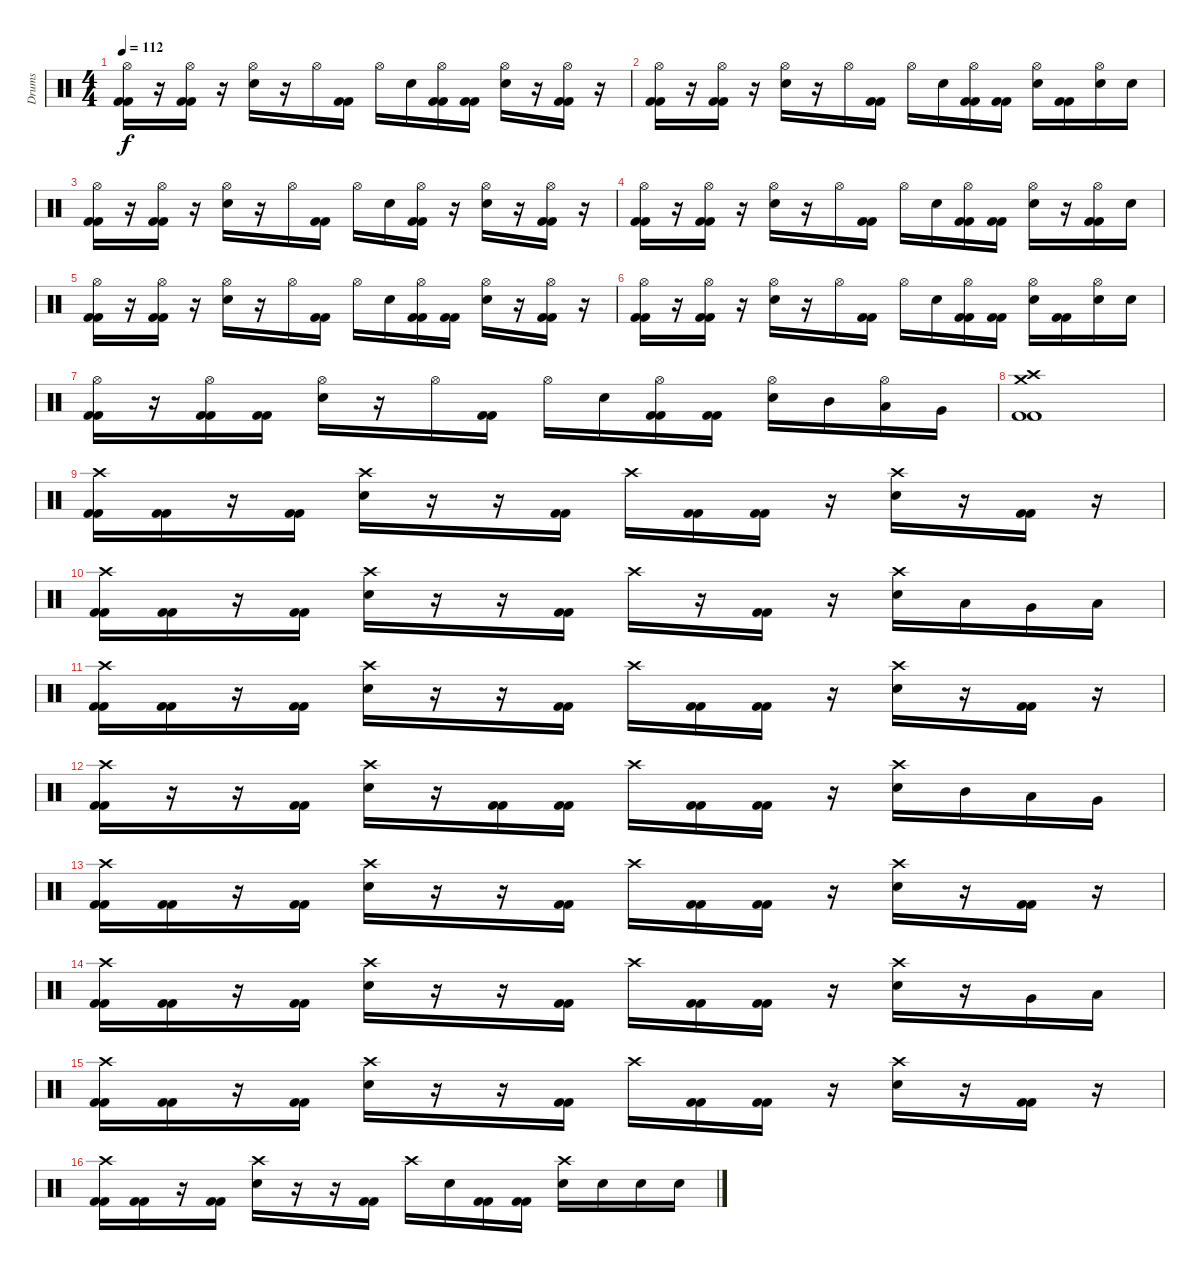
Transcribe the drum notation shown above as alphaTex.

\track ("Drums" "Drums") {instrument percussion}
\staff {score}
\articulation defaults
\ts (4 4)
\tempo 112
\clef neutral
\ks c
("Hi-Hat (open)" "Kick (hit) 2" "Kick (hit) 2").16{dy f} r.16 ("Hi-Hat (open)" "Kick (hit) 2" "Kick (hit) 2").16 r.16 ("Hi-Hat (open)" "Electric Snare (hit)").16 r.16 "Hi-Hat (open)".16 ("Kick (hit) 2" "Kick (hit) 2").16 "Hi-Hat (open)".16 "Electric Snare (hit)".16 ("Hi-Hat (open)" "Kick (hit) 2" "Kick (hit) 2").16 ("Kick (hit) 2" "Kick (hit) 2").16 ("Hi-Hat (open)" "Electric Snare (hit)").16 r.16 ("Hi-Hat (open)" "Kick (hit) 2" "Kick (hit) 2").16 r.16 |
("Hi-Hat (open)" "Kick (hit) 2" "Kick (hit) 2").16 r.16 ("Hi-Hat (open)" "Kick (hit) 2" "Kick (hit) 2").16 r.16 ("Hi-Hat (open)" "Electric Snare (hit)").16 r.16 "Hi-Hat (open)".16 ("Kick (hit) 2" "Kick (hit) 2").16 "Hi-Hat (open)".16 "Electric Snare (hit)".16 ("Hi-Hat (open)" "Kick (hit) 2" "Kick (hit) 2").16 ("Kick (hit) 2" "Kick (hit) 2").16 ("Hi-Hat (open)" "Electric Snare (hit)").16 ("Kick (hit) 2" "Kick (hit) 2").16 ("Hi-Hat (open)" "Electric Snare (hit)").16 "Electric Snare (hit)".16 |
("Hi-Hat (open)" "Kick (hit) 2" "Kick (hit) 2").16 r.16 ("Hi-Hat (open)" "Kick (hit) 2" "Kick (hit) 2").16 r.16 ("Hi-Hat (open)" "Electric Snare (hit)").16 r.16 "Hi-Hat (open)".16 ("Kick (hit) 2" "Kick (hit) 2").16 "Hi-Hat (open)".16 "Electric Snare (hit)".16 ("Hi-Hat (open)" "Kick (hit) 2" "Kick (hit) 2").16 r.16 ("Hi-Hat (open)" "Electric Snare (hit)").16 r.16 ("Hi-Hat (open)" "Kick (hit) 2" "Kick (hit) 2").16 r.16 |
("Hi-Hat (open)" "Kick (hit) 2" "Kick (hit) 2").16 r.16 ("Hi-Hat (open)" "Kick (hit) 2" "Kick (hit) 2").16 r.16 ("Hi-Hat (open)" "Electric Snare (hit)").16 r.16 "Hi-Hat (open)".16 ("Kick (hit) 2" "Kick (hit) 2").16 "Hi-Hat (open)".16 "Electric Snare (hit)".16 ("Hi-Hat (open)" "Kick (hit) 2" "Kick (hit) 2").16 ("Kick (hit) 2" "Kick (hit) 2").16 ("Hi-Hat (open)" "Electric Snare (hit)").16 r.16 ("Hi-Hat (open)" "Kick (hit) 2" "Kick (hit) 2").16 "Electric Snare (hit)".16 |
("Hi-Hat (open)" "Kick (hit) 2" "Kick (hit) 2").16 r.16 ("Hi-Hat (open)" "Kick (hit) 2" "Kick (hit) 2").16 r.16 ("Hi-Hat (open)" "Electric Snare (hit)").16 r.16 "Hi-Hat (open)".16 ("Kick (hit) 2" "Kick (hit) 2").16 "Hi-Hat (open)".16 "Electric Snare (hit)".16 ("Hi-Hat (open)" "Kick (hit) 2" "Kick (hit) 2").16 ("Kick (hit) 2" "Kick (hit) 2").16 ("Hi-Hat (open)" "Electric Snare (hit)").16 r.16 ("Hi-Hat (open)" "Kick (hit) 2" "Kick (hit) 2").16 r.16 |
("Hi-Hat (open)" "Kick (hit) 2" "Kick (hit) 2").16 r.16 ("Hi-Hat (open)" "Kick (hit) 2" "Kick (hit) 2").16 r.16 ("Hi-Hat (open)" "Electric Snare (hit)").16 r.16 "Hi-Hat (open)".16 ("Kick (hit) 2" "Kick (hit) 2").16 "Hi-Hat (open)".16 "Electric Snare (hit)".16 ("Hi-Hat (open)" "Kick (hit) 2" "Kick (hit) 2").16 ("Kick (hit) 2" "Kick (hit) 2").16 ("Hi-Hat (open)" "Electric Snare (hit)").16 ("Kick (hit) 2" "Kick (hit) 2").16 ("Hi-Hat (open)" "Electric Snare (hit)").16 "Electric Snare (hit)".16 |
("Hi-Hat (open)" "Kick (hit) 2" "Kick (hit) 2").16 r.16 ("Hi-Hat (open)" "Kick (hit) 2" "Kick (hit) 2").16 ("Kick (hit) 2" "Kick (hit) 2").16 ("Hi-Hat (open)" "Electric Snare (hit)").16 r.16 "Hi-Hat (open)".16 ("Kick (hit) 2" "Kick (hit) 2").16 "Hi-Hat (open)".16 "Electric Snare (hit)".16 ("Hi-Hat (open)" "Kick (hit) 2" "Kick (hit) 2").16 ("Kick (hit) 2" "Kick (hit) 2").16 ("Hi-Hat (open)" "Electric Snare (hit)").16 "Mid Tom (hit)".16 ("Hi-Hat (open)" "Low Tom (hit)").16 "Very Low Tom (hit)".16 |
("Crash medium (hit)" "Crash high (hit)" "Kick (hit) 2" "Kick (hit) 2").1 |
("Crash high (hit)" "Kick (hit) 2" "Kick (hit) 2").16 ("Kick (hit) 2" "Kick (hit) 2").16 r.16 ("Kick (hit) 2" "Kick (hit) 2").16 ("Crash high (hit)" "Electric Snare (hit)").16 r.16 r.16 ("Kick (hit) 2" "Kick (hit) 2").16 "Crash high (hit)".16 ("Kick (hit) 2" "Kick (hit) 2").16 ("Kick (hit) 2" "Kick (hit) 2").16 r.16 ("Crash high (hit)" "Electric Snare (hit)").16 r.16 ("Kick (hit) 2" "Kick (hit) 2").16 r.16 |
("Crash high (hit)" "Kick (hit) 2" "Kick (hit) 2").16 ("Kick (hit) 2" "Kick (hit) 2").16 r.16 ("Kick (hit) 2" "Kick (hit) 2").16 ("Crash high (hit)" "Electric Snare (hit)").16 r.16 r.16 ("Kick (hit) 2" "Kick (hit) 2").16 "Crash high (hit)".16 r.16 ("Kick (hit) 2" "Kick (hit) 2").16 r.16 ("Crash high (hit)" "Electric Snare (hit)").16 "Low Tom (hit)".16 "Very Low Tom (hit)".16 "Low Floor Tom (hit)".16 |
("Crash high (hit)" "Kick (hit) 2" "Kick (hit) 2").16 ("Kick (hit) 2" "Kick (hit) 2").16 r.16 ("Kick (hit) 2" "Kick (hit) 2").16 ("Crash high (hit)" "Electric Snare (hit)").16 r.16 r.16 ("Kick (hit) 2" "Kick (hit) 2").16 "Crash high (hit)".16 ("Kick (hit) 2" "Kick (hit) 2").16 ("Kick (hit) 2" "Kick (hit) 2").16 r.16 ("Crash high (hit)" "Electric Snare (hit)").16 r.16 ("Kick (hit) 2" "Kick (hit) 2").16 r.16 |
("Crash high (hit)" "Kick (hit) 2" "Kick (hit) 2").16 r.16 r.16 ("Kick (hit) 2" "Kick (hit) 2").16 ("Crash high (hit)" "Electric Snare (hit)").16 r.16 ("Kick (hit) 2" "Kick (hit) 2").16 ("Kick (hit) 2" "Kick (hit) 2").16 "Crash high (hit)".16 ("Kick (hit) 2" "Kick (hit) 2").16 ("Kick (hit) 2" "Kick (hit) 2").16 r.16 ("Crash high (hit)" "Electric Snare (hit)").16 "Mid Tom (hit)".16 "Low Tom (hit)".16 "Very Low Tom (hit)".16 |
("Crash high (hit)" "Kick (hit) 2" "Kick (hit) 2").16 ("Kick (hit) 2" "Kick (hit) 2").16 r.16 ("Kick (hit) 2" "Kick (hit) 2").16 ("Crash high (hit)" "Electric Snare (hit)").16 r.16 r.16 ("Kick (hit) 2" "Kick (hit) 2").16 "Crash high (hit)".16 ("Kick (hit) 2" "Kick (hit) 2").16 ("Kick (hit) 2" "Kick (hit) 2").16 r.16 ("Crash high (hit)" "Electric Snare (hit)").16 r.16 ("Kick (hit) 2" "Kick (hit) 2").16 r.16 |
("Crash high (hit)" "Kick (hit) 2" "Kick (hit) 2").16 ("Kick (hit) 2" "Kick (hit) 2").16 r.16 ("Kick (hit) 2" "Kick (hit) 2").16 ("Crash high (hit)" "Electric Snare (hit)").16 r.16 r.16 ("Kick (hit) 2" "Kick (hit) 2").16 "Crash high (hit)".16 ("Kick (hit) 2" "Kick (hit) 2").16 ("Kick (hit) 2" "Kick (hit) 2").16 r.16 ("Crash high (hit)" "Electric Snare (hit)").16 r.16 "Very Low Tom (hit)".16 "Low Floor Tom (hit)".16 |
("Crash high (hit)" "Kick (hit) 2" "Kick (hit) 2").16 ("Kick (hit) 2" "Kick (hit) 2").16 r.16 ("Kick (hit) 2" "Kick (hit) 2").16 ("Crash high (hit)" "Electric Snare (hit)").16 r.16 r.16 ("Kick (hit) 2" "Kick (hit) 2").16 "Crash high (hit)".16 ("Kick (hit) 2" "Kick (hit) 2").16 ("Kick (hit) 2" "Kick (hit) 2").16 r.16 ("Crash high (hit)" "Electric Snare (hit)").16 r.16 ("Kick (hit) 2" "Kick (hit) 2").16 r.16 |
("Crash high (hit)" "Kick (hit) 2" "Kick (hit) 2").16 ("Kick (hit) 2" "Kick (hit) 2").16 r.16 ("Kick (hit) 2" "Kick (hit) 2").16 ("Crash high (hit)" "Electric Snare (hit)").16 r.16 r.16 ("Kick (hit) 2" "Kick (hit) 2").16 "Crash high (hit)".16 "Electric Snare (hit)".16 ("Kick (hit) 2" "Kick (hit) 2").16 ("Kick (hit) 2" "Kick (hit) 2").16 ("Crash high (hit)" "Electric Snare (hit)").16 "Electric Snare (hit)".16 "Electric Snare (hit)".16 "Electric Snare (hit)".16
